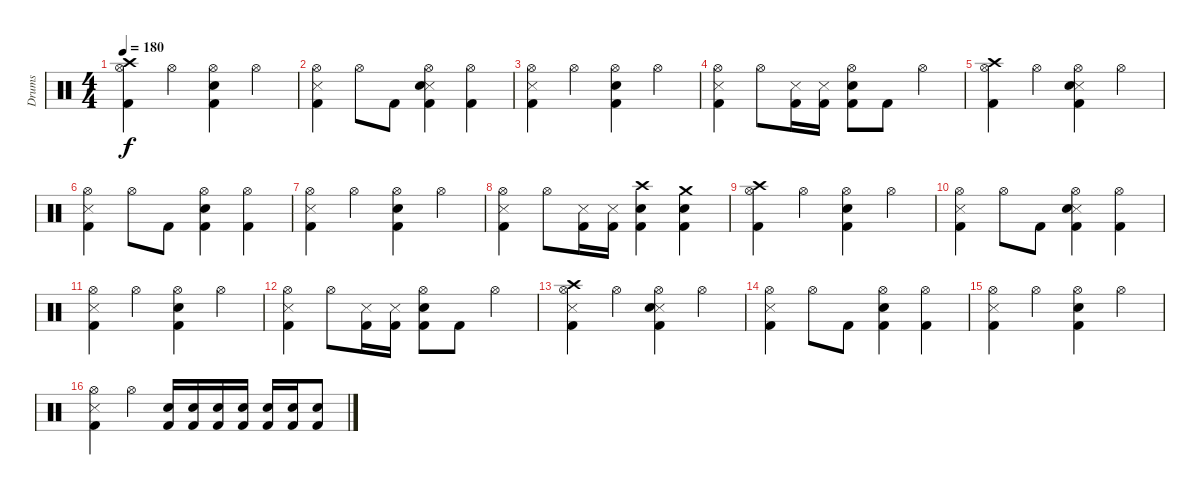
\track ("Drums" "Drums") {instrument percussion}
\staff {score}
\articulation defaults
\ts (4 4)
\tempo 180
\clef neutral
\ks c
("Crash high (hit)" "Hi-Hat (open)" "Kick (hit) 2").4{dy f} "Hi-Hat (open)".4 ("Hi-Hat (open)" "Electric Snare (hit)" "Kick (hit) 2").4 "Hi-Hat (open)".4 |
("Snare (side stick) 3" "Hi-Hat (open)" "Kick (hit) 2").4 "Hi-Hat (open)".8 "Kick (hit) 2".8 ("Snare (side stick) 3" "Hi-Hat (open)" "Electric Snare (hit)" "Kick (hit) 2").4 ("Hi-Hat (open)" "Kick (hit) 2").4 |
("Snare (side stick) 3" "Hi-Hat (open)" "Kick (hit) 2").4 "Hi-Hat (open)".4 ("Hi-Hat (open)" "Electric Snare (hit)" "Kick (hit) 2").4 "Hi-Hat (open)".4 |
("Snare (side stick) 3" "Hi-Hat (open)" "Kick (hit) 2").4 "Hi-Hat (open)".8 ("Snare (side stick) 3" "Kick (hit) 2").16 ("Snare (side stick) 3" "Kick (hit) 2").16 ("Hi-Hat (open)" "Electric Snare (hit)" "Kick (hit) 2").8 "Kick (hit) 2".8 "Hi-Hat (open)".4 |
("Crash high (hit)" "Hi-Hat (open)" "Kick (hit) 2").4 "Hi-Hat (open)".4 ("Snare (side stick) 3" "Hi-Hat (open)" "Electric Snare (hit)" "Kick (hit) 2").4 "Hi-Hat (open)".4 |
("Snare (side stick) 3" "Hi-Hat (open)" "Kick (hit) 2").4 "Hi-Hat (open)".8 "Kick (hit) 2".8 ("Hi-Hat (open)" "Electric Snare (hit)" "Kick (hit) 2").4 ("Hi-Hat (open)" "Kick (hit) 2").4 |
("Snare (side stick) 3" "Hi-Hat (open)" "Kick (hit) 2").4 "Hi-Hat (open)".4 ("Hi-Hat (open)" "Electric Snare (hit)" "Kick (hit) 2").4 "Hi-Hat (open)".4 |
("Snare (side stick) 3" "Hi-Hat (open)" "Kick (hit) 2").4 "Hi-Hat (open)".8 ("Snare (side stick) 3" "Kick (hit) 2").16 ("Snare (side stick) 3" "Kick (hit) 2").16 ("Crash high (hit)" "Electric Snare (hit)" "Kick (hit) 2").4 ("Crash medium (hit)" "Electric Snare (hit)" "Kick (hit) 2").4 |
("Crash high (hit)" "Hi-Hat (open)" "Kick (hit) 2").4 "Hi-Hat (open)".4 ("Hi-Hat (open)" "Electric Snare (hit)" "Kick (hit) 2").4 "Hi-Hat (open)".4 |
("Snare (side stick) 3" "Hi-Hat (open)" "Kick (hit) 2").4 "Hi-Hat (open)".8 "Kick (hit) 2".8 ("Snare (side stick) 3" "Hi-Hat (open)" "Electric Snare (hit)" "Kick (hit) 2").4 ("Hi-Hat (open)" "Kick (hit) 2").4 |
("Snare (side stick) 3" "Hi-Hat (open)" "Kick (hit) 2").4 "Hi-Hat (open)".4 ("Hi-Hat (open)" "Electric Snare (hit)" "Kick (hit) 2").4 "Hi-Hat (open)".4 |
("Snare (side stick) 3" "Hi-Hat (open)" "Kick (hit) 2").4 "Hi-Hat (open)".8 ("Snare (side stick) 3" "Kick (hit) 2").16 ("Snare (side stick) 3" "Kick (hit) 2").16 ("Hi-Hat (open)" "Electric Snare (hit)" "Kick (hit) 2").8 "Kick (hit) 2".8 "Hi-Hat (open)".4 |
("Crash high (hit)" "Snare (side stick) 3" "Hi-Hat (open)" "Kick (hit) 2").4 "Hi-Hat (open)".4 ("Snare (side stick) 3" "Hi-Hat (open)" "Electric Snare (hit)" "Kick (hit) 2").4 "Hi-Hat (open)".4 |
("Snare (side stick) 3" "Hi-Hat (open)" "Kick (hit) 2").4 "Hi-Hat (open)".8 "Kick (hit) 2".8 ("Hi-Hat (open)" "Electric Snare (hit)" "Kick (hit) 2").4 ("Hi-Hat (open)" "Kick (hit) 2").4 |
("Snare (side stick) 3" "Hi-Hat (open)" "Kick (hit) 2").4 "Hi-Hat (open)".4 ("Hi-Hat (open)" "Electric Snare (hit)" "Kick (hit) 2").4 "Hi-Hat (open)".4 |
("Snare (side stick) 3" "Hi-Hat (open)" "Kick (hit) 2").4 "Hi-Hat (open)".4 ("Electric Snare (hit)" "Kick (hit) 2").16 ("Electric Snare (hit)" "Kick (hit) 2").16 ("Electric Snare (hit)" "Kick (hit) 2").16 ("Electric Snare (hit)" "Kick (hit) 2").16 ("Electric Snare (hit)" "Kick (hit) 2").16 ("Electric Snare (hit)" "Kick (hit) 2").16 ("Electric Snare (hit)" "Kick (hit) 2").8
